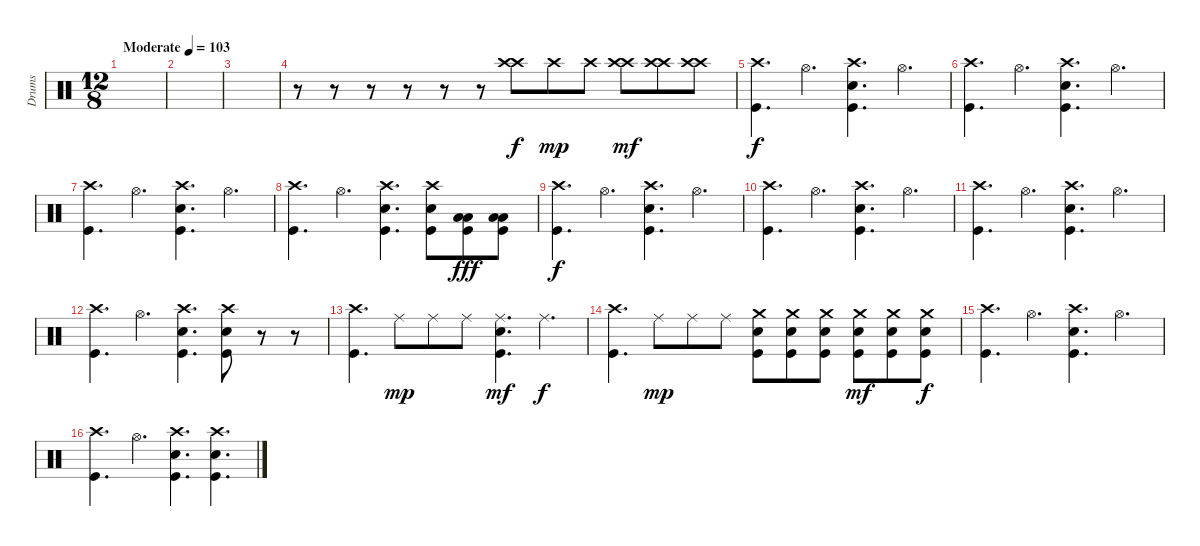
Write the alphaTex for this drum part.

\track ("Drums" "Drums") {instrument percussion}
\staff {score}
\articulation defaults
\ts (12 8)
\tempo (103 "Moderate")
\clef neutral
\ks c
|
|
|
r.8 r.8 r.8 r.8 r.8 r.8 ("Crash high (hit)" "Crash high (hit)").8 "Crash high (hit)".8{dy mp} "Crash high (hit)".8 ("Crash high (hit)" "Crash high (hit)").8{dy mf} ("Crash high (hit)" "Crash high (hit)").8 ("Crash high (hit)" "Crash high (hit)").8 |
("Crash high (hit)" "Kick (hit)").4{d dy f} "Hi-Hat (open)".4{d} ("Crash high (hit)" "Snare (hit) 2" "Kick (hit)").4{d} "Hi-Hat (open)".4{d} |
("Crash high (hit)" "Kick (hit)").4{d} "Hi-Hat (open)".4{d} ("Crash high (hit)" "Snare (hit) 2" "Kick (hit)").4{d} "Hi-Hat (open)".4{d} |
("Crash high (hit)" "Kick (hit)").4{d} "Hi-Hat (open)".4{d} ("Crash high (hit)" "Snare (hit) 2" "Kick (hit)").4{d} "Hi-Hat (open)".4{d} |
("Crash high (hit)" "Kick (hit)").4{d} "Hi-Hat (open)".4{d} ("Crash high (hit)" "Snare (hit) 2" "Kick (hit)").4{d} ("Crash high (hit)" "Snare (hit) 2" "Kick (hit)").8 ("Low Floor Tom (hit)" "Low Floor Tom (hit)" "Kick (hit)").8{dy fff} ("Low Floor Tom (hit)" "Low Floor Tom (hit)" "Kick (hit)").8 |
("Crash high (hit)" "Kick (hit)").4{d dy f} "Hi-Hat (open)".4{d} ("Crash high (hit)" "Snare (hit) 2" "Kick (hit)").4{d} "Hi-Hat (open)".4{d} |
("Crash high (hit)" "Kick (hit)").4{d} "Hi-Hat (open)".4{d} ("Crash high (hit)" "Snare (hit) 2" "Kick (hit)").4{d} "Hi-Hat (open)".4{d} |
("Crash high (hit)" "Kick (hit)").4{d} "Hi-Hat (open)".4{d} ("Crash high (hit)" "Snare (hit) 2" "Kick (hit)").4{d} "Hi-Hat (open)".4{d} |
("Crash high (hit)" "Kick (hit)").4{d} "Hi-Hat (open)".4{d} ("Crash high (hit)" "Snare (hit) 2" "Kick (hit)").4{d} ("Crash high (hit)" "Snare (hit) 2" "Kick (hit)").8 r.8 r.8 |
("Crash high (hit)" "Kick (hit)").4{d} "Ride (middle)".8{dy mp} "Ride (middle)".8 "Ride (middle)".8 ("Ride (middle)" "Snare (hit) 2" "Kick (hit)").4{d dy mf} "Ride (middle)".4{d dy f} |
("Crash high (hit)" "Kick (hit)").4{d} "Ride (middle)".8{dy mp} "Ride (middle)".8 "Ride (middle)".8 ("Crash medium (hit)" "Snare (hit) 2" "Kick (hit)").8 ("Crash medium (hit)" "Snare (hit) 2" "Kick (hit)").8 ("Crash medium (hit)" "Snare (hit) 2" "Kick (hit)").8 ("Crash medium (hit)" "Snare (hit) 2" "Kick (hit)").8{dy mf} ("Crash medium (hit)" "Snare (hit) 2" "Kick (hit)").8 ("Crash medium (hit)" "Snare (hit) 2" "Kick (hit)").8{dy f} |
("Crash high (hit)" "Kick (hit)").4{d} "Hi-Hat (open)".4{d} ("Crash high (hit)" "Snare (hit) 2" "Kick (hit)").4{d} "Hi-Hat (open)".4{d} |
("Crash high (hit)" "Kick (hit)").4{d} "Hi-Hat (open)".4{d} ("Crash high (hit)" "Snare (hit) 2" "Kick (hit)").4{d} ("Crash high (hit)" "Snare (hit) 2" "Kick (hit)").4{d}
